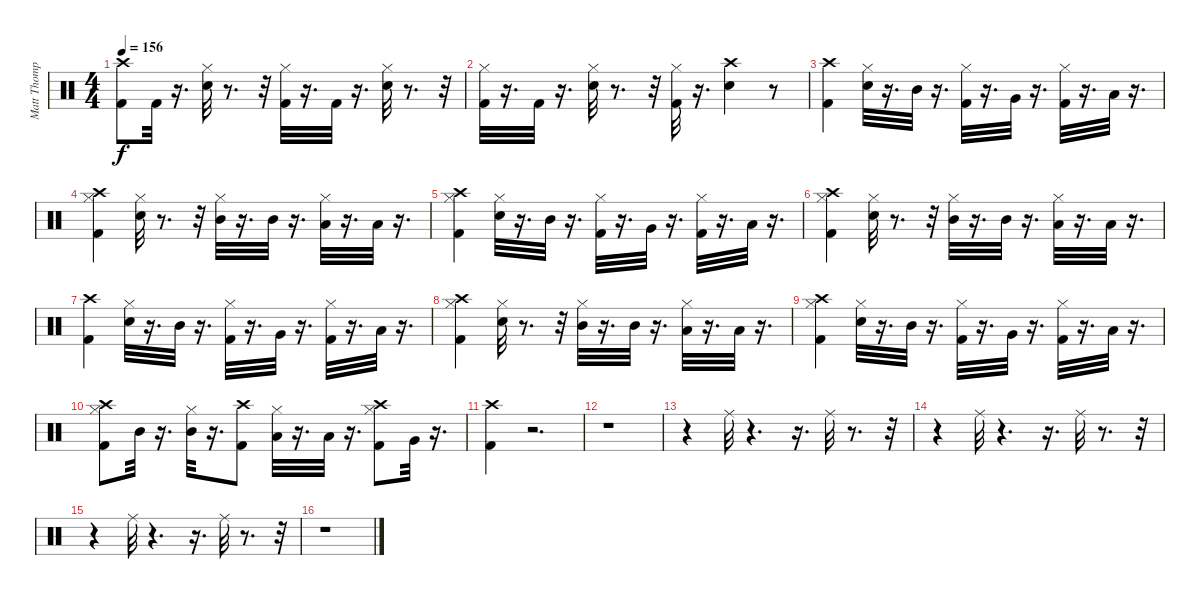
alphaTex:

\track ("Matt Thompson" "Matt Thomp") {instrument percussion}
\staff {score}
\articulation defaults
\ts (4 4)
\tempo 156
\clef neutral
\ks c
("Crash high (hit)" "Kick (hit) 2").8{dy f} "Kick (hit) 2".32 r.16{d} ("Hi-Hat (closed)" "Snare (hit) 2").32 r.8{d} r.32 ("Hi-Hat (closed)" "Kick (hit) 2").32 r.16{d} "Kick (hit) 2".32 r.16{d} ("Hi-Hat (closed)" "Snare (hit) 2").32 r.8{d} r.32 |
("Hi-Hat (closed)" "Kick (hit) 2").32 r.16{d} "Kick (hit) 2".32 r.16{d} ("Hi-Hat (closed)" "Snare (hit) 2").32 r.8{d} r.32 ("Hi-Hat (closed)" "Kick (hit) 2").32 r.16{d} ("Crash high (hit)" "Snare (hit) 2").4 r.8 |
("Crash high (hit)" "Kick (hit) 2").4 ("Hi-Hat (closed)" "Snare (hit) 2").32 r.16{d} "Mid Tom (hit)".32 r.16{d} ("Hi-Hat (closed)" "Kick (hit) 2").32 r.16{d} "Very Low Tom (hit)".32 r.16{d} ("Hi-Hat (closed)" "Kick (hit) 2").32 r.16{d} "Low Floor Tom (hit)".32 r.16{d} |
("Hi-Hat (closed)" "Kick (hit) 2" "Crash high (hit)").4 ("Hi-Hat (closed)" "Snare (hit) 2").32 r.8{d} r.32 ("Hi-Hat (closed)" "Mid Tom (hit)").32 r.16{d} "Mid Tom (hit)".32 r.16{d} ("Hi-Hat (closed)" "Low Tom (hit)").32 r.16{d} "Low Tom (hit)".32 r.16{d} |
("Hi-Hat (closed)" "Crash high (hit)" "Kick (hit) 2").4 ("Hi-Hat (closed)" "Snare (hit) 2").32 r.16{d} "Mid Tom (hit)".32 r.16{d} ("Hi-Hat (closed)" "Kick (hit) 2").32 r.16{d} "Very Low Tom (hit)".32 r.16{d} ("Hi-Hat (closed)" "Kick (hit) 2").32 r.16{d} "Low Floor Tom (hit)".32 r.16{d} |
("Hi-Hat (closed)" "Kick (hit) 2" "Crash high (hit)").4 ("Hi-Hat (closed)" "Snare (hit) 2").32 r.8{d} r.32 ("Hi-Hat (closed)" "Mid Tom (hit)").32 r.16{d} "Mid Tom (hit)".32 r.16{d} ("Hi-Hat (closed)" "Low Tom (hit)").32 r.16{d} "Low Tom (hit)".32 r.16{d} |
("Crash high (hit)" "Kick (hit) 2").4 ("Hi-Hat (closed)" "Snare (hit) 2").32 r.16{d} "Mid Tom (hit)".32 r.16{d} ("Hi-Hat (closed)" "Kick (hit) 2").32 r.16{d} "Very Low Tom (hit)".32 r.16{d} ("Hi-Hat (closed)" "Kick (hit) 2").32 r.16{d} "Low Floor Tom (hit)".32 r.16{d} |
("Hi-Hat (closed)" "Kick (hit) 2" "Crash high (hit)").4 ("Hi-Hat (closed)" "Snare (hit) 2").32 r.8{d} r.32 ("Hi-Hat (closed)" "Mid Tom (hit)").32 r.16{d} "Mid Tom (hit)".32 r.16{d} ("Hi-Hat (closed)" "Low Tom (hit)").32 r.16{d} "Low Tom (hit)".32 r.16{d} |
("Hi-Hat (closed)" "Crash high (hit)" "Kick (hit) 2").4 ("Hi-Hat (closed)" "Snare (hit) 2").32 r.16{d} "Mid Tom (hit)".32 r.16{d} ("Hi-Hat (closed)" "Kick (hit) 2").32 r.16{d} "Very Low Tom (hit)".32 r.16{d} ("Hi-Hat (closed)" "Kick (hit) 2").32 r.16{d} "Low Floor Tom (hit)".32 r.16{d} |
("Hi-Hat (closed)" "Kick (hit) 2" "Crash high (hit)").8 "Mid Tom (hit)".32 r.16{d} ("Hi-Hat (closed)" "Mid Tom (hit)").32 r.16{d} ("Kick (hit) 2" "Crash high (hit)").8 ("Hi-Hat (closed)" "Low Tom (hit)").32 r.16{d} "Low Tom (hit)".32 r.16{d} ("Hi-Hat (closed)" "Kick (hit) 2" "Crash high (hit)").8 "Very Low Tom (hit)".32 r.16{d} |
("Crash high (hit)" "Kick (hit) 2").4 r.2{d} |
r.1 |
r.4 "Ride (middle)".32 r.4{d} r.16{d} "Ride (middle)".32 r.8{d} r.32 |
r.4 "Ride (middle)".32 r.4{d} r.16{d} "Ride (middle)".32 r.8{d} r.32 |
r.4 "Ride (middle)".32 r.4{d} r.16{d} "Ride (middle)".32 r.8{d} r.32 |
r.1
